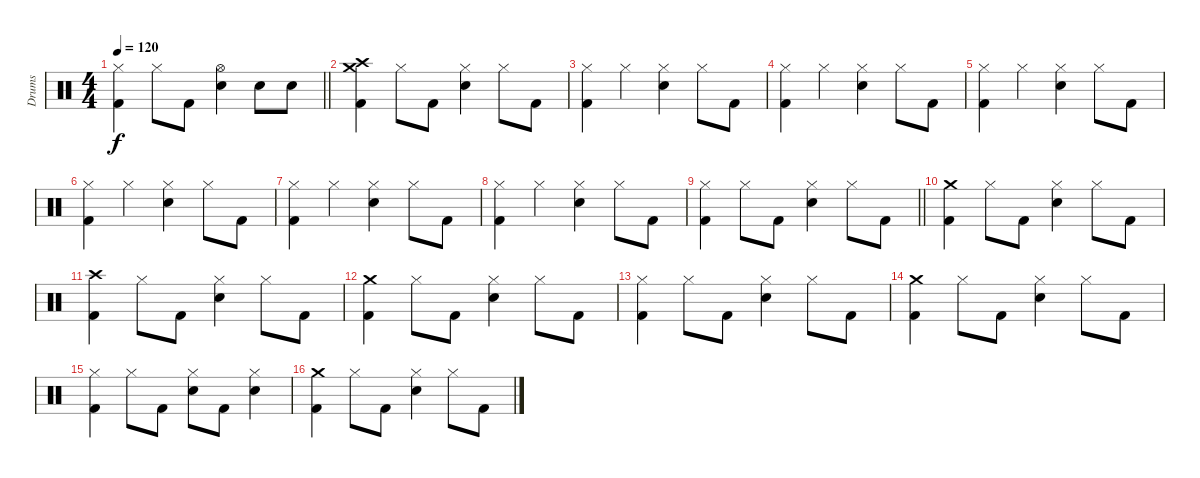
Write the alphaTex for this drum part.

\track ("Drums" "Drums") {instrument percussion}
\staff {score}
\articulation defaults
\ts (4 4)
\tempo 120
\clef neutral
\barLineRight lightlight
\ks c
("Hi-Hat (closed)" "Kick (hit) 2").4{dy f} "Hi-Hat (closed)".8 "Kick (hit) 2".8 ("Hi-Hat (open)" "Electric Snare (hit)").4 "Electric Snare (hit)".8 "Electric Snare (hit)".8 |
("Crash high (hit)" "Crash medium (hit)" "Kick (hit) 2").4 "Hi-Hat (closed)".8 "Kick (hit) 2".8 ("Hi-Hat (closed)" "Electric Snare (hit)").4 "Hi-Hat (closed)".8 "Kick (hit) 2".8 |
("Hi-Hat (closed)" "Kick (hit) 2").4 "Hi-Hat (closed)".4 ("Hi-Hat (closed)" "Electric Snare (hit)").4 "Hi-Hat (closed)".8 "Kick (hit) 2".8 |
("Hi-Hat (closed)" "Kick (hit) 2").4 "Hi-Hat (closed)".4 ("Hi-Hat (closed)" "Electric Snare (hit)").4 "Hi-Hat (closed)".8 "Kick (hit) 2".8 |
("Hi-Hat (closed)" "Kick (hit) 2").4 "Hi-Hat (closed)".4 ("Hi-Hat (closed)" "Electric Snare (hit)").4 "Hi-Hat (closed)".8 "Kick (hit) 2".8 |
("Hi-Hat (closed)" "Kick (hit) 2").4 "Hi-Hat (closed)".4 ("Hi-Hat (closed)" "Electric Snare (hit)").4 "Hi-Hat (closed)".8 "Kick (hit) 2".8 |
("Hi-Hat (closed)" "Kick (hit) 2").4 "Hi-Hat (closed)".4 ("Hi-Hat (closed)" "Electric Snare (hit)").4 "Hi-Hat (closed)".8 "Kick (hit) 2".8 |
("Hi-Hat (closed)" "Kick (hit) 2").4 "Hi-Hat (closed)".4 ("Hi-Hat (closed)" "Electric Snare (hit)").4 "Hi-Hat (closed)".8 "Kick (hit) 2".8 |
\barLineRight lightlight
("Hi-Hat (closed)" "Kick (hit) 2").4 "Hi-Hat (closed)".8 "Kick (hit) 2".8 ("Hi-Hat (closed)" "Electric Snare (hit)").4 "Hi-Hat (closed)".8 "Kick (hit) 2".8 |
("Crash medium (hit)" "Kick (hit) 2").4 "Hi-Hat (closed)".8 "Kick (hit) 2".8 ("Hi-Hat (closed)" "Electric Snare (hit)").4 "Hi-Hat (closed)".8 "Kick (hit) 2".8 |
("Crash high (hit)" "Kick (hit) 2").4 "Hi-Hat (closed)".8 "Kick (hit) 2".8 ("Hi-Hat (closed)" "Electric Snare (hit)").4 "Hi-Hat (closed)".8 "Kick (hit) 2".8 |
("Crash medium (hit)" "Kick (hit) 2").4 "Hi-Hat (closed)".8 "Kick (hit) 2".8 ("Hi-Hat (closed)" "Electric Snare (hit)").4 "Hi-Hat (closed)".8 "Kick (hit) 2".8 |
("Hi-Hat (closed)" "Kick (hit) 2").4 "Hi-Hat (closed)".8 "Kick (hit) 2".8 ("Hi-Hat (closed)" "Electric Snare (hit)").4 "Hi-Hat (closed)".8 "Kick (hit) 2".8 |
("Crash medium (hit)" "Kick (hit) 2").4 "Hi-Hat (closed)".8 "Kick (hit) 2".8 ("Hi-Hat (closed)" "Electric Snare (hit)").4 "Hi-Hat (closed)".8 "Kick (hit) 2".8 |
("Hi-Hat (closed)" "Kick (hit) 2").4 "Hi-Hat (closed)".8 "Kick (hit) 2".8 ("Hi-Hat (closed)" "Electric Snare (hit)").8 "Kick (hit) 2".8 ("Hi-Hat (closed)" "Electric Snare (hit)").4 |
("Crash medium (hit)" "Kick (hit) 2").4 "Hi-Hat (closed)".8 "Kick (hit) 2".8 ("Hi-Hat (closed)" "Electric Snare (hit)").4 "Hi-Hat (closed)".8 "Kick (hit) 2".8
